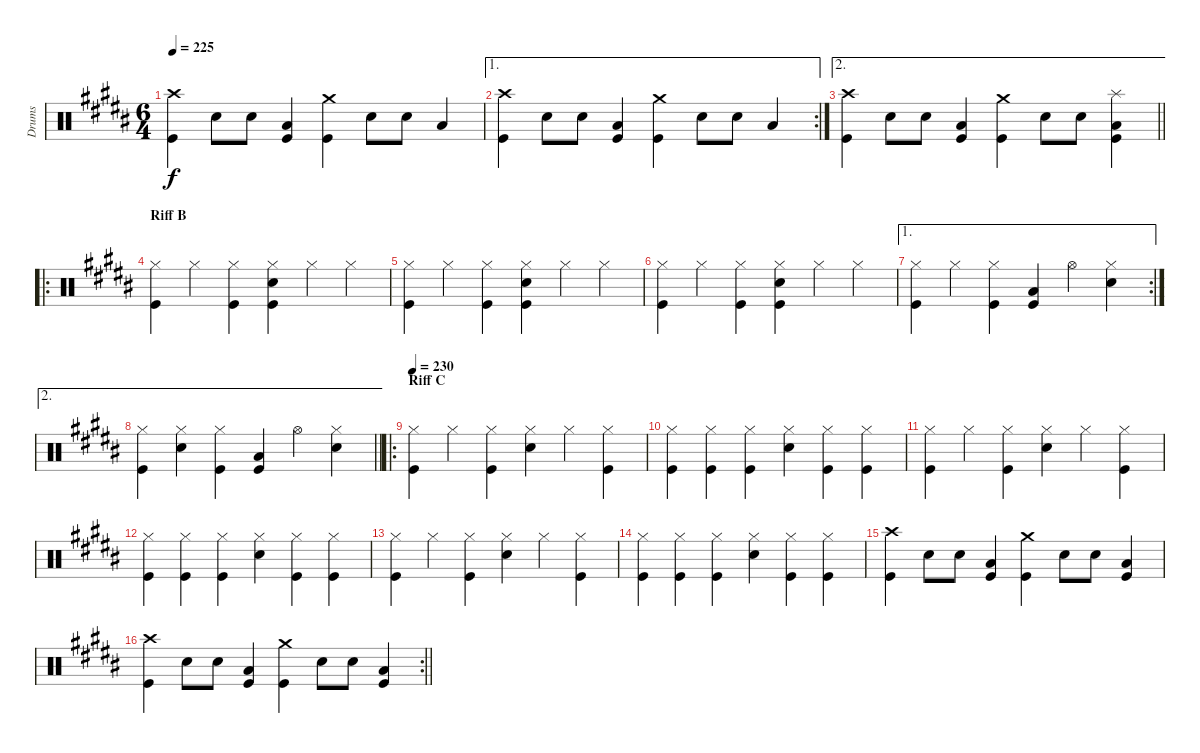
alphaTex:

\track ("Drums" "Drums") {instrument percussion}
\staff {score}
\articulation defaults
\ts (6 4)
\tempo 225
\clef neutral
\ks b
("Crash high (hit)" "Kick (hit)").4{dy f} "Snare (hit) 2".8 "Snare (hit) 2".8 ("Low Floor Tom (hit)" "Kick (hit)").4 ("Crash medium (hit)" "Kick (hit)").4 "Snare (hit) 2".8 "Snare (hit) 2".8 "Low Floor Tom (hit)".4 |
\ae 1
\rc 2
("Crash high (hit)" "Kick (hit)").4 "Snare (hit) 2".8 "Snare (hit) 2".8 ("Low Floor Tom (hit)" "Kick (hit)").4 ("Crash medium (hit)" "Kick (hit)").4 "Snare (hit) 2".8 "Snare (hit) 2".8 "Low Floor Tom (hit)".4 |
\ae 2
\barLineRight lightlight
("Crash high (hit)" "Kick (hit)").4 "Snare (hit) 2".8 "Snare (hit) 2".8 ("Low Floor Tom (hit)" "Kick (hit)").4 ("Crash medium (hit)" "Kick (hit)").4 "Snare (hit) 2".8 "Snare (hit) 2".8 ("Splash (hit)" "Low Floor Tom (hit)" "Kick (hit)").4 |
\ro
\section ("" "Riff B")
("Hi-Hat (closed)" "Kick (hit)").4 "Hi-Hat (closed)".4 ("Hi-Hat (closed)" "Kick (hit)").4 ("Hi-Hat (closed)" "Snare (hit) 2" "Kick (hit)").4 "Hi-Hat (closed)".4 "Hi-Hat (closed)".4 |
("Hi-Hat (closed)" "Kick (hit)").4 "Hi-Hat (closed)".4 ("Hi-Hat (closed)" "Kick (hit)").4 ("Hi-Hat (closed)" "Snare (hit) 2" "Kick (hit)").4 "Hi-Hat (closed)".4 "Hi-Hat (closed)".4 |
("Hi-Hat (closed)" "Kick (hit)").4 "Hi-Hat (closed)".4 ("Hi-Hat (closed)" "Kick (hit)").4 ("Hi-Hat (closed)" "Snare (hit) 2" "Kick (hit)").4 "Hi-Hat (closed)".4 "Hi-Hat (closed)".4 |
\ae 1
\rc 2
("Hi-Hat (closed)" "Kick (hit)").4 "Hi-Hat (closed)".4 ("Hi-Hat (closed)" "Kick (hit)").4 ("Low Floor Tom (hit)" "Kick (hit)").4 "Hi-Hat (open)".4 ("Hi-Hat (closed)" "Snare (hit) 2").4 |
\ae 2
\barLineRight lightlight
("Hi-Hat (closed)" "Kick (hit)").4 ("Hi-Hat (closed)" "Snare (hit) 2").4 ("Hi-Hat (closed)" "Kick (hit)").4 ("Low Floor Tom (hit)" "Kick (hit)").4 "Hi-Hat (open)".4 ("Hi-Hat (closed)" "Snare (hit) 2").4 |
\ro
\section ("" "Riff C")
\tempo 230
("Hi-Hat (closed)" "Kick (hit)").4 "Hi-Hat (closed)".4 ("Hi-Hat (closed)" "Kick (hit)").4 ("Hi-Hat (closed)" "Snare (hit) 2").4 "Hi-Hat (closed)".4 ("Hi-Hat (closed)" "Kick (hit)").4 |
("Hi-Hat (closed)" "Kick (hit)").4 ("Hi-Hat (closed)" "Kick (hit)").4 ("Hi-Hat (closed)" "Kick (hit)").4 ("Hi-Hat (closed)" "Snare (hit) 2").4 ("Hi-Hat (closed)" "Kick (hit)").4 ("Hi-Hat (closed)" "Kick (hit)").4 |
("Hi-Hat (closed)" "Kick (hit)").4 "Hi-Hat (closed)".4 ("Hi-Hat (closed)" "Kick (hit)").4 ("Hi-Hat (closed)" "Snare (hit) 2").4 "Hi-Hat (closed)".4 ("Hi-Hat (closed)" "Kick (hit)").4 |
("Hi-Hat (closed)" "Kick (hit)").4 ("Hi-Hat (closed)" "Kick (hit)").4 ("Hi-Hat (closed)" "Kick (hit)").4 ("Hi-Hat (closed)" "Snare (hit) 2").4 ("Hi-Hat (closed)" "Kick (hit)").4 ("Hi-Hat (closed)" "Kick (hit)").4 |
("Hi-Hat (closed)" "Kick (hit)").4 "Hi-Hat (closed)".4 ("Hi-Hat (closed)" "Kick (hit)").4 ("Hi-Hat (closed)" "Snare (hit) 2").4 "Hi-Hat (closed)".4 ("Hi-Hat (closed)" "Kick (hit)").4 |
("Hi-Hat (closed)" "Kick (hit)").4 ("Hi-Hat (closed)" "Kick (hit)").4 ("Hi-Hat (closed)" "Kick (hit)").4 ("Hi-Hat (closed)" "Snare (hit) 2").4 ("Hi-Hat (closed)" "Kick (hit)").4 ("Hi-Hat (closed)" "Kick (hit)").4 |
("Crash high (hit)" "Kick (hit)").4 "Snare (hit) 2".8 "Snare (hit) 2".8 ("Low Floor Tom (hit)" "Kick (hit)").4 ("Crash medium (hit)" "Kick (hit)").4 "Snare (hit) 2".8 "Snare (hit) 2".8 ("Low Floor Tom (hit)" "Kick (hit)").4 |
\rc 2
\barLineRight lightlight
("Crash high (hit)" "Kick (hit)").4 "Snare (hit) 2".8 "Snare (hit) 2".8 ("Low Floor Tom (hit)" "Kick (hit)").4 ("Crash medium (hit)" "Kick (hit)").4 "Snare (hit) 2".8 "Snare (hit) 2".8 ("Low Floor Tom (hit)" "Kick (hit)").4
